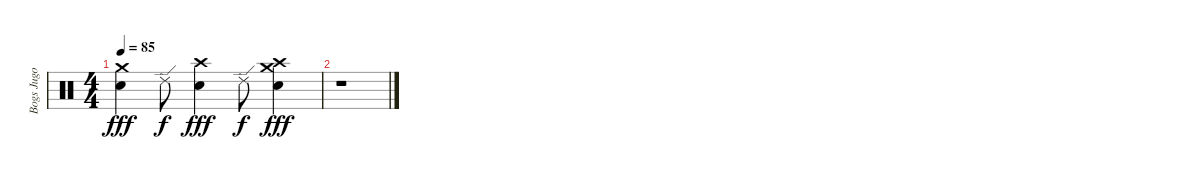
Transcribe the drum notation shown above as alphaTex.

\track ("Bogs Jugo" "Bogs Jugo") {instrument percussion}
\staff {score}
\articulation defaults
\ts (4 4)
\tempo 85
\clef neutral
\ks c
("Electric Snare (hit)" "Crash medium (hit)").4{dy fff} "Ride (edge) 2".8{dy f} ("Electric Snare (hit)" "Crash high (hit)").4{dy fff} "Ride (edge) 2".8{dy f} ("Crash high (hit)" "Crash medium (hit)" "Electric Snare (hit)").4{dy fff} |
r.1
